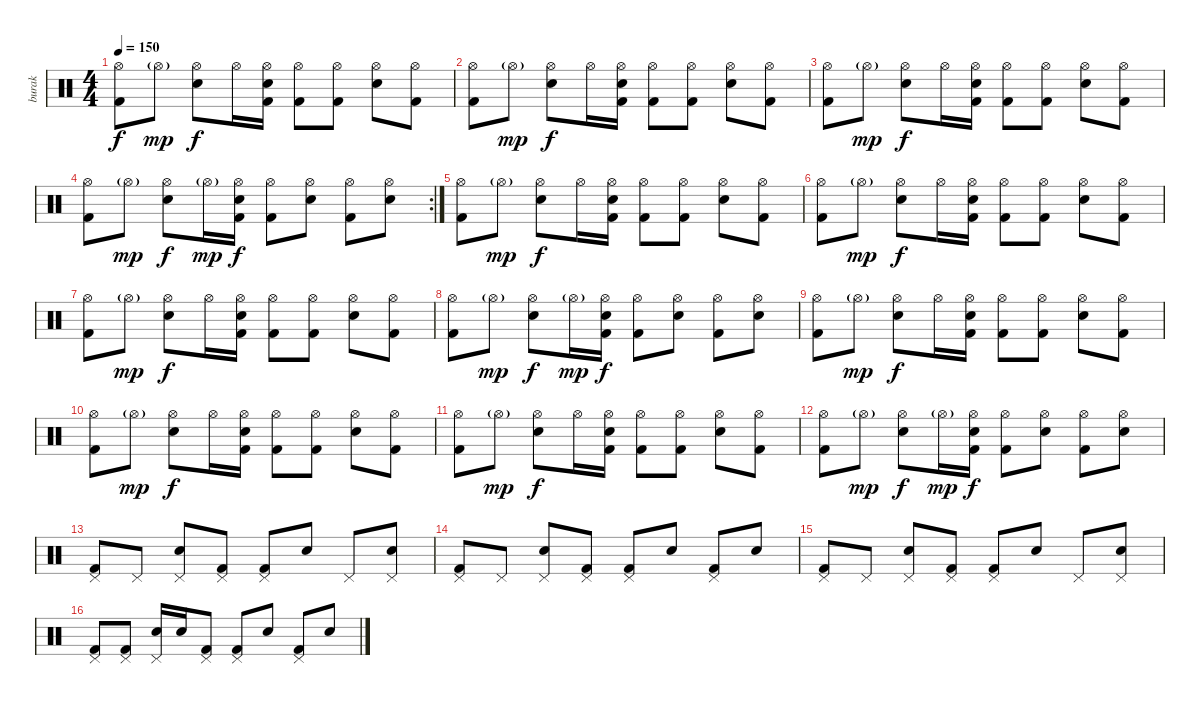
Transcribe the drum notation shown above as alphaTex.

\track ("burak" "burak") {instrument percussion}
\staff {score}
\articulation defaults
\ts (4 4)
\tempo 150
\clef neutral
\ks c
("Hi-Hat (open)" "Kick (hit) 2").8{dy f} "Hi-Hat (open)"{g}.8{dy mp} ("Hi-Hat (open)" "Electric Snare (hit)").8{dy f} "Hi-Hat (open)".16 ("Hi-Hat (open)" "Kick (hit) 2" "Electric Snare (hit)").16 ("Hi-Hat (open)" "Kick (hit) 2").8 ("Hi-Hat (open)" "Kick (hit) 2").8 ("Hi-Hat (open)" "Electric Snare (hit)").8 ("Hi-Hat (open)" "Kick (hit) 2").8 |
("Hi-Hat (open)" "Kick (hit) 2").8 "Hi-Hat (open)"{g}.8{dy mp} ("Hi-Hat (open)" "Electric Snare (hit)").8{dy f} "Hi-Hat (open)".16 ("Hi-Hat (open)" "Kick (hit) 2" "Electric Snare (hit)").16 ("Hi-Hat (open)" "Kick (hit) 2").8 ("Hi-Hat (open)" "Kick (hit) 2").8 ("Hi-Hat (open)" "Electric Snare (hit)").8 ("Hi-Hat (open)" "Kick (hit) 2").8 |
("Hi-Hat (open)" "Kick (hit) 2").8 "Hi-Hat (open)"{g}.8{dy mp} ("Hi-Hat (open)" "Electric Snare (hit)").8{dy f} "Hi-Hat (open)".16 ("Hi-Hat (open)" "Kick (hit) 2" "Electric Snare (hit)").16 ("Hi-Hat (open)" "Kick (hit) 2").8 ("Hi-Hat (open)" "Kick (hit) 2").8 ("Hi-Hat (open)" "Electric Snare (hit)").8 ("Hi-Hat (open)" "Kick (hit) 2").8 |
\rc 2
("Hi-Hat (open)" "Kick (hit) 2").8 "Hi-Hat (open)"{g}.8{dy mp} ("Hi-Hat (open)" "Electric Snare (hit)").8{dy f} "Hi-Hat (open)"{g}.16{dy mp} ("Hi-Hat (open)" "Kick (hit) 2" "Electric Snare (hit)").16{dy f} ("Hi-Hat (open)" "Kick (hit) 2").8 ("Hi-Hat (open)" "Electric Snare (hit)").8 ("Hi-Hat (open)" "Kick (hit) 2").8 ("Hi-Hat (open)" "Electric Snare (hit)").8 |
("Hi-Hat (open)" "Kick (hit) 2").8 "Hi-Hat (open)"{g}.8{dy mp} ("Hi-Hat (open)" "Electric Snare (hit)").8{dy f} "Hi-Hat (open)".16 ("Hi-Hat (open)" "Kick (hit) 2" "Electric Snare (hit)").16 ("Hi-Hat (open)" "Kick (hit) 2").8 ("Hi-Hat (open)" "Kick (hit) 2").8 ("Hi-Hat (open)" "Electric Snare (hit)").8 ("Hi-Hat (open)" "Kick (hit) 2").8 |
("Hi-Hat (open)" "Kick (hit) 2").8 "Hi-Hat (open)"{g}.8{dy mp} ("Hi-Hat (open)" "Electric Snare (hit)").8{dy f} "Hi-Hat (open)".16 ("Hi-Hat (open)" "Kick (hit) 2" "Electric Snare (hit)").16 ("Hi-Hat (open)" "Kick (hit) 2").8 ("Hi-Hat (open)" "Kick (hit) 2").8 ("Hi-Hat (open)" "Electric Snare (hit)").8 ("Hi-Hat (open)" "Kick (hit) 2").8 |
("Hi-Hat (open)" "Kick (hit) 2").8 "Hi-Hat (open)"{g}.8{dy mp} ("Hi-Hat (open)" "Electric Snare (hit)").8{dy f} "Hi-Hat (open)".16 ("Hi-Hat (open)" "Kick (hit) 2" "Electric Snare (hit)").16 ("Hi-Hat (open)" "Kick (hit) 2").8 ("Hi-Hat (open)" "Kick (hit) 2").8 ("Hi-Hat (open)" "Electric Snare (hit)").8 ("Hi-Hat (open)" "Kick (hit) 2").8 |
("Hi-Hat (open)" "Kick (hit) 2").8 "Hi-Hat (open)"{g}.8{dy mp} ("Hi-Hat (open)" "Electric Snare (hit)").8{dy f} "Hi-Hat (open)"{g}.16{dy mp} ("Hi-Hat (open)" "Kick (hit) 2" "Electric Snare (hit)").16{dy f} ("Hi-Hat (open)" "Kick (hit) 2").8 ("Hi-Hat (open)" "Electric Snare (hit)").8 ("Hi-Hat (open)" "Kick (hit) 2").8 ("Hi-Hat (open)" "Electric Snare (hit)").8 |
("Hi-Hat (open)" "Kick (hit) 2").8 "Hi-Hat (open)"{g}.8{dy mp} ("Hi-Hat (open)" "Electric Snare (hit)").8{dy f} "Hi-Hat (open)".16 ("Hi-Hat (open)" "Kick (hit) 2" "Electric Snare (hit)").16 ("Hi-Hat (open)" "Kick (hit) 2").8 ("Hi-Hat (open)" "Kick (hit) 2").8 ("Hi-Hat (open)" "Electric Snare (hit)").8 ("Hi-Hat (open)" "Kick (hit) 2").8 |
("Hi-Hat (open)" "Kick (hit) 2").8 "Hi-Hat (open)"{g}.8{dy mp} ("Hi-Hat (open)" "Electric Snare (hit)").8{dy f} "Hi-Hat (open)".16 ("Hi-Hat (open)" "Kick (hit) 2" "Electric Snare (hit)").16 ("Hi-Hat (open)" "Kick (hit) 2").8 ("Hi-Hat (open)" "Kick (hit) 2").8 ("Hi-Hat (open)" "Electric Snare (hit)").8 ("Hi-Hat (open)" "Kick (hit) 2").8 |
("Hi-Hat (open)" "Kick (hit) 2").8 "Hi-Hat (open)"{g}.8{dy mp} ("Hi-Hat (open)" "Electric Snare (hit)").8{dy f} "Hi-Hat (open)".16 ("Hi-Hat (open)" "Kick (hit) 2" "Electric Snare (hit)").16 ("Hi-Hat (open)" "Kick (hit) 2").8 ("Hi-Hat (open)" "Kick (hit) 2").8 ("Hi-Hat (open)" "Electric Snare (hit)").8 ("Hi-Hat (open)" "Kick (hit) 2").8 |
("Hi-Hat (open)" "Kick (hit) 2").8 "Hi-Hat (open)"{g}.8{dy mp} ("Hi-Hat (open)" "Electric Snare (hit)").8{dy f} "Hi-Hat (open)"{g}.16{dy mp} ("Hi-Hat (open)" "Kick (hit) 2" "Electric Snare (hit)").16{dy f} ("Hi-Hat (open)" "Kick (hit) 2").8 ("Hi-Hat (open)" "Electric Snare (hit)").8 ("Hi-Hat (open)" "Kick (hit) 2").8 ("Hi-Hat (open)" "Electric Snare (hit)").8 |
("Pedal Hi-Hat (hit)" "Kick (hit) 2").8 "Pedal Hi-Hat (hit)".8 ("Pedal Hi-Hat (hit)" "Electric Snare (hit)").8 ("Pedal Hi-Hat (hit)" "Kick (hit) 2").8 ("Pedal Hi-Hat (hit)" "Kick (hit) 2").8 "Electric Snare (hit)".8 "Pedal Hi-Hat (hit)".8 ("Pedal Hi-Hat (hit)" "Electric Snare (hit)").8 |
("Pedal Hi-Hat (hit)" "Kick (hit) 2").8 "Pedal Hi-Hat (hit)".8 ("Pedal Hi-Hat (hit)" "Electric Snare (hit)").8 ("Pedal Hi-Hat (hit)" "Kick (hit) 2").8 ("Pedal Hi-Hat (hit)" "Kick (hit) 2").8 "Electric Snare (hit)".8 ("Pedal Hi-Hat (hit)" "Kick (hit) 2").8 "Electric Snare (hit)".8 |
("Pedal Hi-Hat (hit)" "Kick (hit) 2").8 "Pedal Hi-Hat (hit)".8 ("Pedal Hi-Hat (hit)" "Electric Snare (hit)").8 ("Pedal Hi-Hat (hit)" "Kick (hit) 2").8 ("Pedal Hi-Hat (hit)" "Kick (hit) 2").8 "Electric Snare (hit)".8 "Pedal Hi-Hat (hit)".8 ("Pedal Hi-Hat (hit)" "Electric Snare (hit)").8 |
("Pedal Hi-Hat (hit)" "Kick (hit) 2").8 ("Pedal Hi-Hat (hit)" "Kick (hit) 2").8 ("Pedal Hi-Hat (hit)" "Electric Snare (hit)").16 "Electric Snare (hit)".16 ("Pedal Hi-Hat (hit)" "Kick (hit) 2").8 ("Pedal Hi-Hat (hit)" "Kick (hit) 2").8 "Electric Snare (hit)".8 ("Pedal Hi-Hat (hit)" "Kick (hit) 2").8 "Electric Snare (hit)".8
